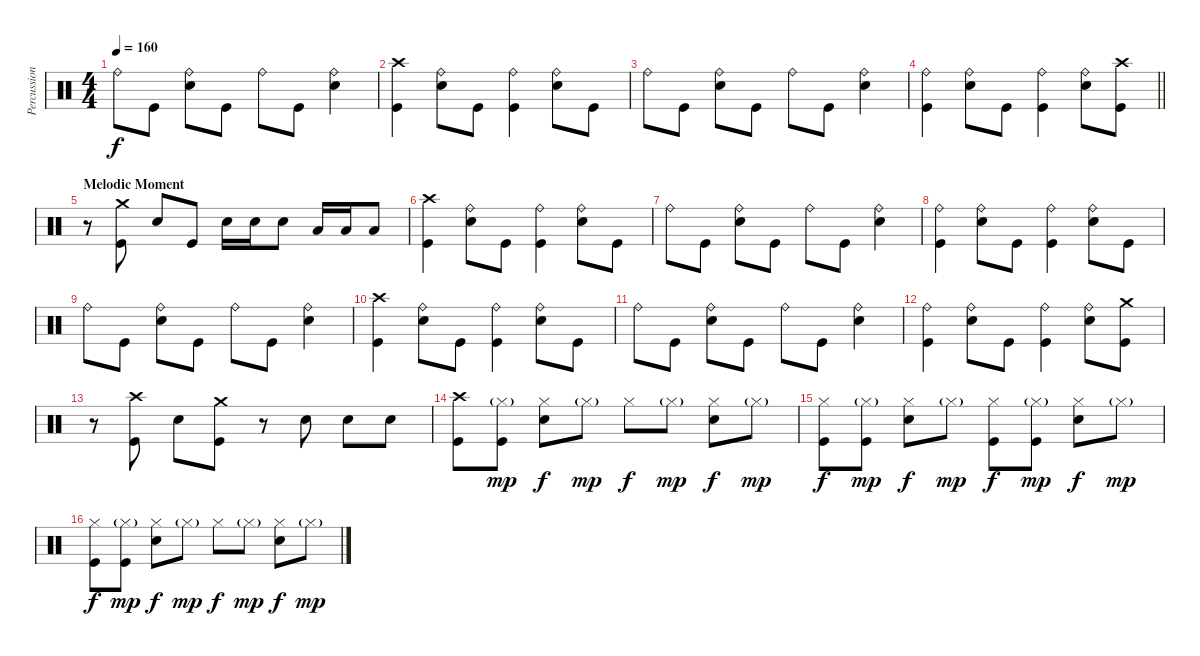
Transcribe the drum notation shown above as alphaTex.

\track ("Percussions" "Percussion") {instrument percussion}
\staff {score}
\articulation defaults
\ts (4 4)
\tempo 160
\clef neutral
\ks c "Ride (bell)".8{dy f} "Kick (hit)".8
("Snare (hit) 2" "Ride (bell)").8 "Kick (hit)".8 "Ride (bell)".8 "Kick (hit)".8 ("Snare (hit) 2" "Ride (bell)").4 |
("Kick (hit)" "Crash high (hit)").4 ("Snare (hit) 2" "Ride (bell)").8 "Kick (hit)".8 ("Kick (hit)" "Ride (bell)").4 ("Snare (hit) 2" "Ride (bell)").8 "Kick (hit)".8 |
"Ride (bell)".8 "Kick (hit)".8 ("Snare (hit) 2" "Ride (bell)").8 "Kick (hit)".8 "Ride (bell)".8 "Kick (hit)".8 ("Snare (hit) 2" "Ride (bell)").4 |
\barLineRight lightlight
("Kick (hit)" "Ride (bell)").4 ("Snare (hit) 2" "Ride (bell)").8 "Kick (hit)".8 ("Kick (hit)" "Ride (bell)").4 ("Snare (hit) 2" "Ride (bell)").8 ("Kick (hit)" "Crash high (hit)").8 |
\section ("" "Melodic Moment ")
r.8 ("Kick (hit)" "Crash medium (hit)").8 "Snare (hit) 2".8 "Kick (hit)".8 "Snare (hit) 2".16 "Snare (hit) 2".16 "Snare (hit) 2".8 "Low Tom (hit)".16 "Low Tom (hit)".16 "Low Tom (hit)".8 |
("Kick (hit)" "Crash high (hit)").4 ("Snare (hit) 2" "Ride (bell)").8 "Kick (hit)".8 ("Kick (hit)" "Ride (bell)").4 ("Snare (hit) 2" "Ride (bell)").8 "Kick (hit)".8 |
"Ride (bell)".8 "Kick (hit)".8 ("Snare (hit) 2" "Ride (bell)").8 "Kick (hit)".8 "Ride (bell)".8 "Kick (hit)".8 ("Snare (hit) 2" "Ride (bell)").4 |
("Kick (hit)" "Ride (bell)").4 ("Snare (hit) 2" "Ride (bell)").8 "Kick (hit)".8 ("Kick (hit)" "Ride (bell)").4 ("Snare (hit) 2" "Ride (bell)").8 "Kick (hit)".8 |
"Ride (bell)".8 "Kick (hit)".8 ("Snare (hit) 2" "Ride (bell)").8 "Kick (hit)".8 "Ride (bell)".8 "Kick (hit)".8 ("Snare (hit) 2" "Ride (bell)").4 |
("Kick (hit)" "Crash high (hit)").4 ("Snare (hit) 2" "Ride (bell)").8 "Kick (hit)".8 ("Kick (hit)" "Ride (bell)").4 ("Snare (hit) 2" "Ride (bell)").8 "Kick (hit)".8 |
"Ride (bell)".8 "Kick (hit)".8 ("Snare (hit) 2" "Ride (bell)").8 "Kick (hit)".8 "Ride (bell)".8 "Kick (hit)".8 ("Snare (hit) 2" "Ride (bell)").4 |
("Kick (hit)" "Ride (bell)").4 ("Snare (hit) 2" "Ride (bell)").8 "Kick (hit)".8 ("Kick (hit)" "Ride (bell)").4 ("Snare (hit) 2" "Ride (bell)").8 ("Kick (hit)" "Crash medium (hit)").8 |
r.8 ("Kick (hit)" "Crash high (hit)").8 "Snare (hit) 2".8 ("Kick (hit)" "Crash medium (hit)").8 r.8 "Snare (hit) 2".8 "Snare (hit) 2".8 "Snare (hit) 2".8 |
("Kick (hit)" "Crash high (hit)").8 ("Kick (hit)" "Hi-Hat (closed)"{g}).8{dy mp} ("Snare (hit) 2" "Hi-Hat (closed)").8{dy f} "Hi-Hat (closed)"{g}.8{dy mp} "Hi-Hat (closed)".8{dy f} "Hi-Hat (closed)"{g}.8{dy mp} ("Snare (hit) 2" "Hi-Hat (closed)").8{dy f} "Hi-Hat (closed)"{g}.8{dy mp} |
("Kick (hit)" "Hi-Hat (closed)").8{dy f} ("Kick (hit)" "Hi-Hat (closed)"{g}).8{dy mp} ("Snare (hit) 2" "Hi-Hat (closed)").8{dy f} "Hi-Hat (closed)"{g}.8{dy mp} ("Kick (hit)" "Hi-Hat (closed)").8{dy f} ("Kick (hit)" "Hi-Hat (closed)"{g}).8{dy mp} ("Snare (hit) 2" "Hi-Hat (closed)").8{dy f} "Hi-Hat (closed)"{g}.8{dy mp} |
("Kick (hit)" "Hi-Hat (closed)").8{dy f} ("Kick (hit)" "Hi-Hat (closed)"{g}).8{dy mp} ("Snare (hit) 2" "Hi-Hat (closed)").8{dy f} "Hi-Hat (closed)"{g}.8{dy mp} "Hi-Hat (closed)".8{dy f} "Hi-Hat (closed)"{g}.8{dy mp} ("Snare (hit) 2" "Hi-Hat (closed)").8{dy f} "Hi-Hat (closed)"{g}.8{dy mp}
